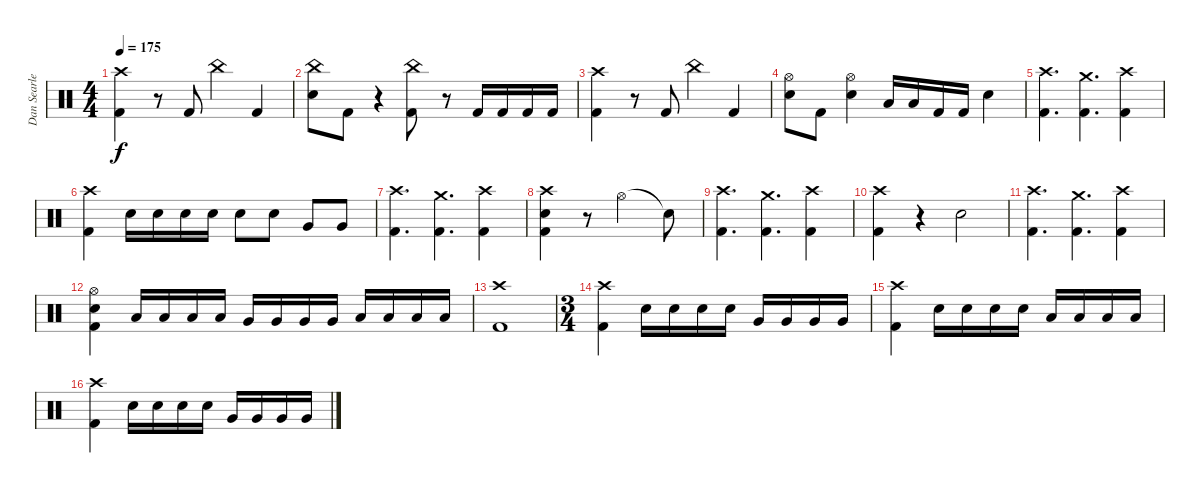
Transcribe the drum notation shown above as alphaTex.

\track ("Dan Searle" "Dan Searle") {instrument percussion}
\staff {score}
\articulation defaults
\ts (4 4)
\tempo 175
\clef neutral
\ks c
("Crash high (hit)" "Kick (hit) 2").4{dy f} r.8 "Kick (hit) 2".8 "China (hit)".4 "Kick (hit) 2".4 |
("China (hit)" "Snare (hit) 2").8 "Kick (hit) 2".8 r.4 ("China (hit)" "Kick (hit) 2").8 r.8 "Kick (hit) 2".16 "Kick (hit) 2".16 "Kick (hit) 2".16 "Kick (hit) 2".16 |
("Crash high (hit)" "Kick (hit) 2").4 r.8 "Kick (hit) 2".8 "China (hit)".4 "Kick (hit) 2".4 |
("Hi-Hat (open)" "Snare (hit) 2").8 "Kick (hit) 2".8 ("Hi-Hat (open)" "Snare (hit) 2").4 "Low Floor Tom (hit)".16 "Low Floor Tom (hit)".16 "Kick (hit) 2".16 "Kick (hit) 2".16 "Snare (hit) 2".4 |
("Crash high (hit)" "Kick (hit) 2").4{d} ("Crash medium (hit)" "Kick (hit) 2").4{d} ("Crash high (hit)" "Kick (hit) 2").4 |
("Crash high (hit)" "Kick (hit) 2").4 "Snare (hit) 2".16 "Snare (hit) 2".16 "Snare (hit) 2".16 "Snare (hit) 2".16 "Snare (hit) 2".8 "Snare (hit) 2".8 "Very Low Tom (hit)".8 "Very Low Tom (hit)".8 |
("Crash high (hit)" "Kick (hit) 2").4{d} ("Crash medium (hit)" "Kick (hit) 2").4{d} ("Crash high (hit)" "Kick (hit) 2").4 |
("Crash high (hit)" "Snare (hit) 2" "Kick (hit) 2").4 r.8 "Hi-Hat (open)".2 "Snare (hit)"{t}.8 |
("Crash high (hit)" "Kick (hit) 2").4{d} ("Crash medium (hit)" "Kick (hit) 2").4{d} ("Crash high (hit)" "Kick (hit) 2").4 |
("Crash high (hit)" "Kick (hit) 2").4 r.4 "Snare (hit) 2".2 |
("Crash high (hit)" "Kick (hit) 2").4{d} ("Crash medium (hit)" "Kick (hit) 2").4{d} ("Crash high (hit)" "Kick (hit) 2").4 |
("Hi-Hat (open)" "Snare (hit) 2" "Kick (hit) 2").4 "Low Tom (hit)".16 "Low Tom (hit)".16 "Low Tom (hit)".16 "Low Tom (hit)".16 "Very Low Tom (hit)".16 "Very Low Tom (hit)".16 "Very Low Tom (hit)".16 "Very Low Tom (hit)".16 "Low Floor Tom (hit)".16 "Low Floor Tom (hit)".16 "Low Floor Tom (hit)".16 "Low Floor Tom (hit)".16 |
("Crash high (hit)" "Kick (hit) 2").1 |
\ts (3 4)
("Crash high (hit)" "Kick (hit) 2").4 "Snare (hit) 2".16 "Snare (hit) 2".16 "Snare (hit) 2".16 "Snare (hit) 2".16 "Very Low Tom (hit)".16 "Very Low Tom (hit)".16 "Very Low Tom (hit)".16 "Very Low Tom (hit)".16 |
("Crash high (hit)" "Kick (hit) 2").4 "Snare (hit) 2".16 "Snare (hit) 2".16 "Snare (hit) 2".16 "Snare (hit) 2".16 "Low Floor Tom (hit)".16 "Low Floor Tom (hit)".16 "Low Floor Tom (hit)".16 "Low Floor Tom (hit)".16 |
("Crash high (hit)" "Kick (hit) 2").4 "Snare (hit) 2".16 "Snare (hit) 2".16 "Snare (hit) 2".16 "Snare (hit) 2".16 "Very Low Tom (hit)".16 "Very Low Tom (hit)".16 "Very Low Tom (hit)".16 "Very Low Tom (hit)".16
